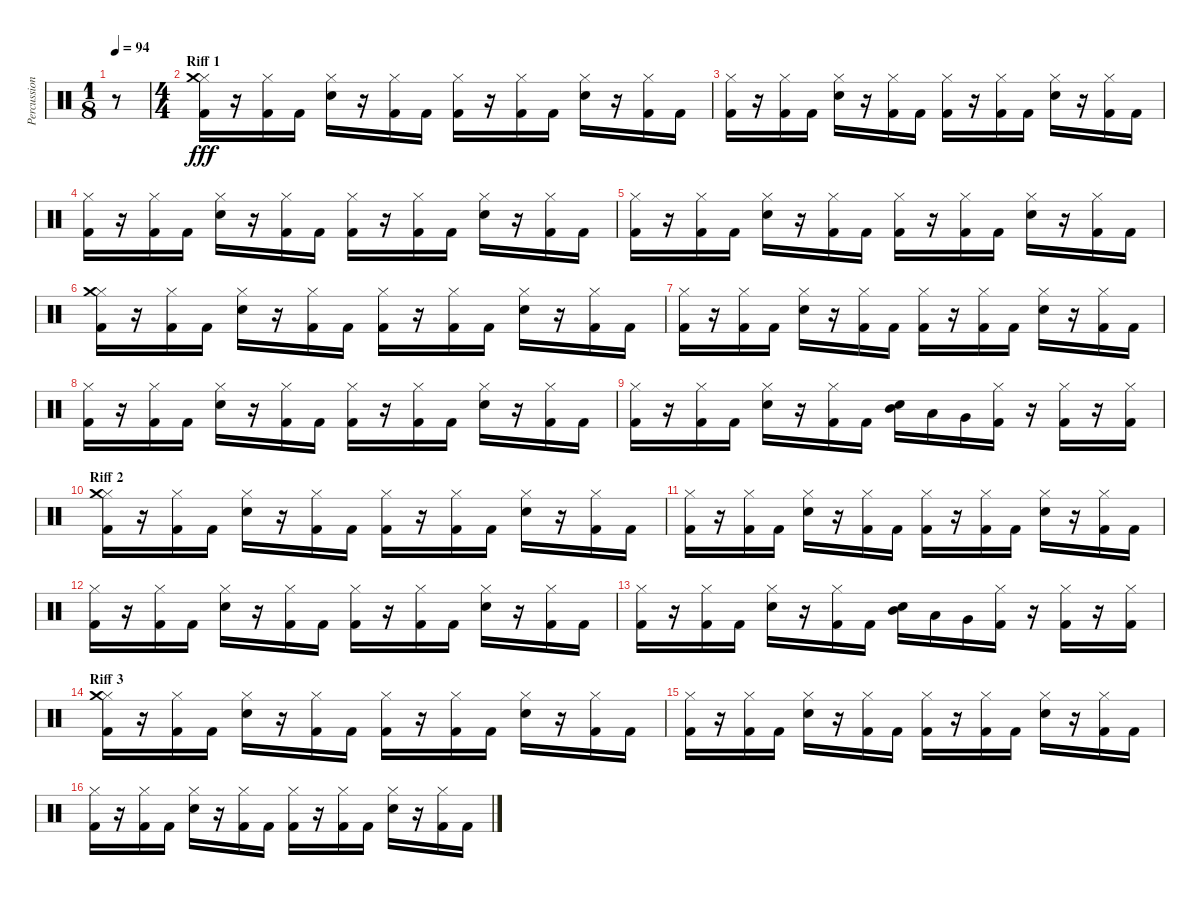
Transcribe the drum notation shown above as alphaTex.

\track ("Percussions" "Percussion") {instrument percussion}
\staff {score}
\articulation defaults
\ts (1 8)
\tempo 94
\clef neutral
\ks c
r.8{dy fff} |
\ts (4 4)
\section ("" "Riff 1")
("Kick (hit) 2" "Hi-Hat (closed)" "Crash medium (hit)").16 r.16 ("Kick (hit) 2" "Hi-Hat (closed)").16 "Kick (hit) 2".16 ("Electric Snare (hit)" "Hi-Hat (closed)").16 r.16 ("Kick (hit) 2" "Hi-Hat (closed)").16 "Kick (hit) 2".16 ("Kick (hit) 2" "Hi-Hat (closed)").16 r.16 ("Kick (hit) 2" "Hi-Hat (closed)").16 "Kick (hit) 2".16 ("Electric Snare (hit)" "Hi-Hat (closed)").16 r.16 ("Kick (hit) 2" "Hi-Hat (closed)").16 "Kick (hit) 2".16 |
("Kick (hit) 2" "Hi-Hat (closed)").16 r.16 ("Kick (hit) 2" "Hi-Hat (closed)").16 "Kick (hit) 2".16 ("Electric Snare (hit)" "Hi-Hat (closed)").16 r.16 ("Kick (hit) 2" "Hi-Hat (closed)").16 "Kick (hit) 2".16 ("Kick (hit) 2" "Hi-Hat (closed)").16 r.16 ("Kick (hit) 2" "Hi-Hat (closed)").16 "Kick (hit) 2".16 ("Electric Snare (hit)" "Hi-Hat (closed)").16 r.16 ("Kick (hit) 2" "Hi-Hat (closed)").16 "Kick (hit) 2".16 |
("Kick (hit) 2" "Hi-Hat (closed)").16 r.16 ("Kick (hit) 2" "Hi-Hat (closed)").16 "Kick (hit) 2".16 ("Electric Snare (hit)" "Hi-Hat (closed)").16 r.16 ("Kick (hit) 2" "Hi-Hat (closed)").16 "Kick (hit) 2".16 ("Kick (hit) 2" "Hi-Hat (closed)").16 r.16 ("Kick (hit) 2" "Hi-Hat (closed)").16 "Kick (hit) 2".16 ("Electric Snare (hit)" "Hi-Hat (closed)").16 r.16 ("Kick (hit) 2" "Hi-Hat (closed)").16 "Kick (hit) 2".16 |
("Kick (hit) 2" "Hi-Hat (closed)").16 r.16 ("Kick (hit) 2" "Hi-Hat (closed)").16 "Kick (hit) 2".16 ("Electric Snare (hit)" "Hi-Hat (closed)").16 r.16 ("Kick (hit) 2" "Hi-Hat (closed)").16 "Kick (hit) 2".16 ("Kick (hit) 2" "Hi-Hat (closed)").16 r.16 ("Kick (hit) 2" "Hi-Hat (closed)").16 "Kick (hit) 2".16 ("Electric Snare (hit)" "Hi-Hat (closed)").16 r.16 ("Kick (hit) 2" "Hi-Hat (closed)").16 "Kick (hit) 2".16 |
("Kick (hit) 2" "Hi-Hat (closed)" "Crash medium (hit)").16 r.16 ("Kick (hit) 2" "Hi-Hat (closed)").16 "Kick (hit) 2".16 ("Electric Snare (hit)" "Hi-Hat (closed)").16 r.16 ("Kick (hit) 2" "Hi-Hat (closed)").16 "Kick (hit) 2".16 ("Kick (hit) 2" "Hi-Hat (closed)").16 r.16 ("Kick (hit) 2" "Hi-Hat (closed)").16 "Kick (hit) 2".16 ("Electric Snare (hit)" "Hi-Hat (closed)").16 r.16 ("Kick (hit) 2" "Hi-Hat (closed)").16 "Kick (hit) 2".16 |
("Kick (hit) 2" "Hi-Hat (closed)").16 r.16 ("Kick (hit) 2" "Hi-Hat (closed)").16 "Kick (hit) 2".16 ("Electric Snare (hit)" "Hi-Hat (closed)").16 r.16 ("Kick (hit) 2" "Hi-Hat (closed)").16 "Kick (hit) 2".16 ("Kick (hit) 2" "Hi-Hat (closed)").16 r.16 ("Kick (hit) 2" "Hi-Hat (closed)").16 "Kick (hit) 2".16 ("Electric Snare (hit)" "Hi-Hat (closed)").16 r.16 ("Kick (hit) 2" "Hi-Hat (closed)").16 "Kick (hit) 2".16 |
("Kick (hit) 2" "Hi-Hat (closed)").16 r.16 ("Kick (hit) 2" "Hi-Hat (closed)").16 "Kick (hit) 2".16 ("Electric Snare (hit)" "Hi-Hat (closed)").16 r.16 ("Kick (hit) 2" "Hi-Hat (closed)").16 "Kick (hit) 2".16 ("Kick (hit) 2" "Hi-Hat (closed)").16 r.16 ("Kick (hit) 2" "Hi-Hat (closed)").16 "Kick (hit) 2".16 ("Electric Snare (hit)" "Hi-Hat (closed)").16 r.16 ("Kick (hit) 2" "Hi-Hat (closed)").16 "Kick (hit) 2".16 |
("Kick (hit) 2" "Hi-Hat (closed)").16 r.16 ("Kick (hit) 2" "Hi-Hat (closed)").16 "Kick (hit) 2".16 ("Electric Snare (hit)" "Hi-Hat (closed)").16 r.16 ("Kick (hit) 2" "Hi-Hat (closed)").16 "Kick (hit) 2".16 ("Electric Snare (hit)" "Mid Tom (hit)").16 "Low Tom (hit)".16 "Very Low Tom (hit)".16 ("Kick (hit) 2" "Hi-Hat (closed)").16 r.16 ("Kick (hit) 2" "Hi-Hat (closed)").16 r.16 ("Kick (hit) 2" "Hi-Hat (closed)").16 |
\section ("" "Riff 2")
("Kick (hit) 2" "Hi-Hat (closed)" "Crash medium (hit)").16 r.16 ("Kick (hit) 2" "Hi-Hat (closed)").16 "Kick (hit) 2".16 ("Electric Snare (hit)" "Hi-Hat (closed)").16 r.16 ("Kick (hit) 2" "Hi-Hat (closed)").16 "Kick (hit) 2".16 ("Kick (hit) 2" "Hi-Hat (closed)").16 r.16 ("Kick (hit) 2" "Hi-Hat (closed)").16 "Kick (hit) 2".16 ("Electric Snare (hit)" "Hi-Hat (closed)").16 r.16 ("Kick (hit) 2" "Hi-Hat (closed)").16 "Kick (hit) 2".16 |
("Kick (hit) 2" "Hi-Hat (closed)").16 r.16 ("Kick (hit) 2" "Hi-Hat (closed)").16 "Kick (hit) 2".16 ("Electric Snare (hit)" "Hi-Hat (closed)").16 r.16 ("Kick (hit) 2" "Hi-Hat (closed)").16 "Kick (hit) 2".16 ("Kick (hit) 2" "Hi-Hat (closed)").16 r.16 ("Kick (hit) 2" "Hi-Hat (closed)").16 "Kick (hit) 2".16 ("Electric Snare (hit)" "Hi-Hat (closed)").16 r.16 ("Kick (hit) 2" "Hi-Hat (closed)").16 "Kick (hit) 2".16 |
("Kick (hit) 2" "Hi-Hat (closed)").16 r.16 ("Kick (hit) 2" "Hi-Hat (closed)").16 "Kick (hit) 2".16 ("Electric Snare (hit)" "Hi-Hat (closed)").16 r.16 ("Kick (hit) 2" "Hi-Hat (closed)").16 "Kick (hit) 2".16 ("Kick (hit) 2" "Hi-Hat (closed)").16 r.16 ("Kick (hit) 2" "Hi-Hat (closed)").16 "Kick (hit) 2".16 ("Electric Snare (hit)" "Hi-Hat (closed)").16 r.16 ("Kick (hit) 2" "Hi-Hat (closed)").16 "Kick (hit) 2".16 |
("Kick (hit) 2" "Hi-Hat (closed)").16 r.16 ("Kick (hit) 2" "Hi-Hat (closed)").16 "Kick (hit) 2".16 ("Electric Snare (hit)" "Hi-Hat (closed)").16 r.16 ("Kick (hit) 2" "Hi-Hat (closed)").16 "Kick (hit) 2".16 ("Electric Snare (hit)" "Mid Tom (hit)").16 "Low Tom (hit)".16 "Very Low Tom (hit)".16 ("Kick (hit) 2" "Hi-Hat (closed)").16 r.16 ("Kick (hit) 2" "Hi-Hat (closed)").16 r.16 ("Kick (hit) 2" "Hi-Hat (closed)").16 |
\section ("" "Riff 3")
("Kick (hit) 2" "Hi-Hat (closed)" "Crash medium (hit)").16 r.16 ("Kick (hit) 2" "Hi-Hat (closed)").16 "Kick (hit) 2".16 ("Electric Snare (hit)" "Hi-Hat (closed)").16 r.16 ("Kick (hit) 2" "Hi-Hat (closed)").16 "Kick (hit) 2".16 ("Kick (hit) 2" "Hi-Hat (closed)").16 r.16 ("Kick (hit) 2" "Hi-Hat (closed)").16 "Kick (hit) 2".16 ("Electric Snare (hit)" "Hi-Hat (closed)").16 r.16 ("Kick (hit) 2" "Hi-Hat (closed)").16 "Kick (hit) 2".16 |
("Kick (hit) 2" "Hi-Hat (closed)").16 r.16 ("Kick (hit) 2" "Hi-Hat (closed)").16 "Kick (hit) 2".16 ("Electric Snare (hit)" "Hi-Hat (closed)").16 r.16 ("Kick (hit) 2" "Hi-Hat (closed)").16 "Kick (hit) 2".16 ("Kick (hit) 2" "Hi-Hat (closed)").16 r.16 ("Kick (hit) 2" "Hi-Hat (closed)").16 "Kick (hit) 2".16 ("Electric Snare (hit)" "Hi-Hat (closed)").16 r.16 ("Kick (hit) 2" "Hi-Hat (closed)").16 "Kick (hit) 2".16 |
("Kick (hit) 2" "Hi-Hat (closed)").16 r.16 ("Kick (hit) 2" "Hi-Hat (closed)").16 "Kick (hit) 2".16 ("Electric Snare (hit)" "Hi-Hat (closed)").16 r.16 ("Kick (hit) 2" "Hi-Hat (closed)").16 "Kick (hit) 2".16 ("Kick (hit) 2" "Hi-Hat (closed)").16 r.16 ("Kick (hit) 2" "Hi-Hat (closed)").16 "Kick (hit) 2".16 ("Electric Snare (hit)" "Hi-Hat (closed)").16 r.16 ("Kick (hit) 2" "Hi-Hat (closed)").16 "Kick (hit) 2".16
